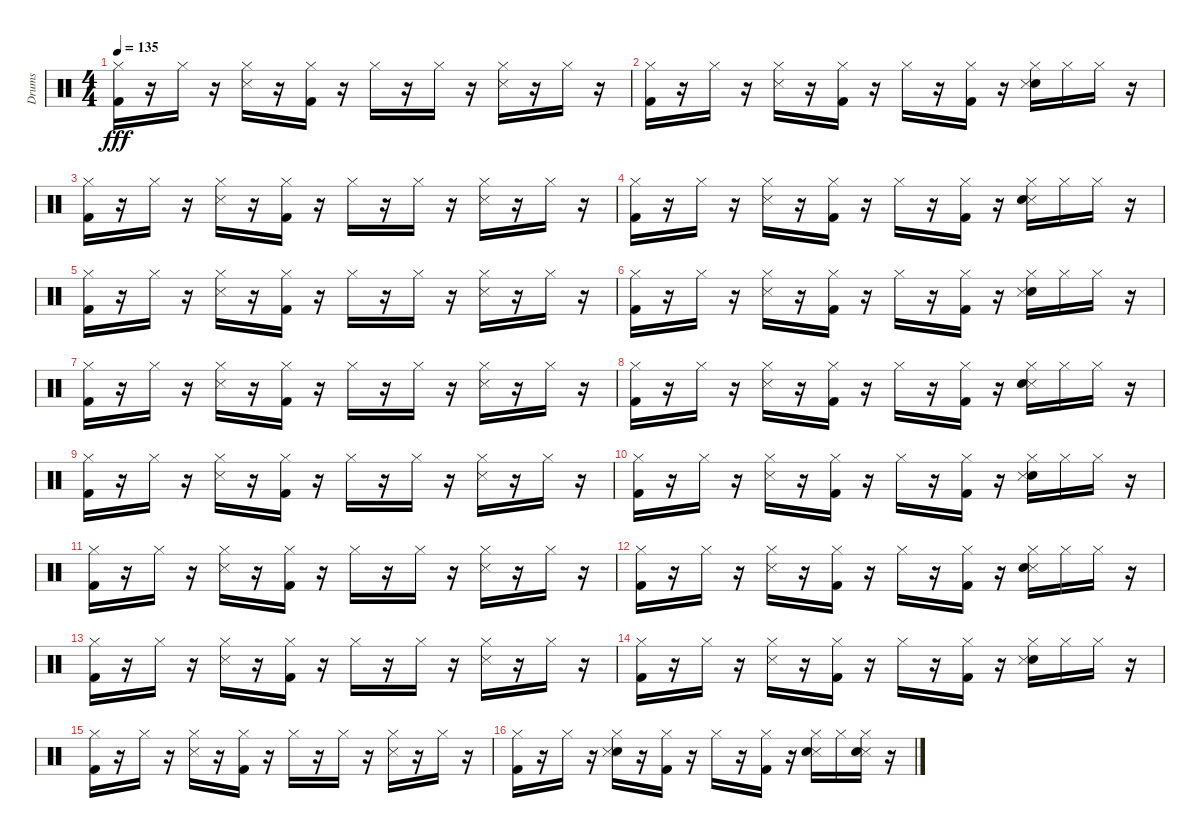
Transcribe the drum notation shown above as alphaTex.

\track ("Drums" "Drums") {instrument percussion}
\staff {score}
\articulation defaults
\ts (4 4)
\tempo 135
\clef neutral
\ks c
("Kick (hit) 2" "Hi-Hat (closed)").16{dy fff} r.16 "Hi-Hat (closed)".16 r.16 ("Snare (side stick) 3" "Hi-Hat (closed)").16 r.16 ("Kick (hit) 2" "Hi-Hat (closed)").16 r.16 "Hi-Hat (closed)".16 r.16 "Hi-Hat (closed)".16 r.16 ("Snare (side stick) 3" "Hi-Hat (closed)").16 r.16 "Hi-Hat (closed)".16 r.16 |
("Kick (hit) 2" "Hi-Hat (closed)").16 r.16 "Hi-Hat (closed)".16 r.16 ("Snare (side stick) 3" "Hi-Hat (closed)").16 r.16 ("Kick (hit) 2" "Hi-Hat (closed)").16 r.16 "Hi-Hat (closed)".16 r.16 ("Kick (hit) 2" "Hi-Hat (closed)").16 r.16 ("Electric Snare (hit)" "Snare (side stick) 3" "Hi-Hat (closed)").16 "Hi-Hat (closed)".16 "Hi-Hat (closed)".16 r.16 |
("Kick (hit) 2" "Hi-Hat (closed)").16 r.16 "Hi-Hat (closed)".16 r.16 ("Snare (side stick) 3" "Hi-Hat (closed)").16 r.16 ("Kick (hit) 2" "Hi-Hat (closed)").16 r.16 "Hi-Hat (closed)".16 r.16 "Hi-Hat (closed)".16 r.16 ("Snare (side stick) 3" "Hi-Hat (closed)").16 r.16 "Hi-Hat (closed)".16 r.16 |
("Kick (hit) 2" "Hi-Hat (closed)").16 r.16 "Hi-Hat (closed)".16 r.16 ("Snare (side stick) 3" "Hi-Hat (closed)").16 r.16 ("Kick (hit) 2" "Hi-Hat (closed)").16 r.16 "Hi-Hat (closed)".16 r.16 ("Kick (hit) 2" "Hi-Hat (closed)").16 r.16 ("Snare (side stick) 3" "Electric Snare (hit)" "Hi-Hat (closed)").16 "Hi-Hat (closed)".16 "Hi-Hat (closed)".16 r.16 |
("Kick (hit) 2" "Hi-Hat (closed)").16 r.16 "Hi-Hat (closed)".16 r.16 ("Snare (side stick) 3" "Hi-Hat (closed)").16 r.16 ("Kick (hit) 2" "Hi-Hat (closed)").16 r.16 "Hi-Hat (closed)".16 r.16 "Hi-Hat (closed)".16 r.16 ("Snare (side stick) 3" "Hi-Hat (closed)").16 r.16 "Hi-Hat (closed)".16 r.16 |
("Kick (hit) 2" "Hi-Hat (closed)").16 r.16 "Hi-Hat (closed)".16 r.16 ("Snare (side stick) 3" "Hi-Hat (closed)").16 r.16 ("Kick (hit) 2" "Hi-Hat (closed)").16 r.16 "Hi-Hat (closed)".16 r.16 ("Kick (hit) 2" "Hi-Hat (closed)").16 r.16 ("Electric Snare (hit)" "Snare (side stick) 3" "Hi-Hat (closed)").16 "Hi-Hat (closed)".16 "Hi-Hat (closed)".16 r.16 |
("Kick (hit) 2" "Hi-Hat (closed)").16 r.16 "Hi-Hat (closed)".16 r.16 ("Snare (side stick) 3" "Hi-Hat (closed)").16 r.16 ("Kick (hit) 2" "Hi-Hat (closed)").16 r.16 "Hi-Hat (closed)".16 r.16 "Hi-Hat (closed)".16 r.16 ("Snare (side stick) 3" "Hi-Hat (closed)").16 r.16 "Hi-Hat (closed)".16 r.16 |
("Kick (hit) 2" "Hi-Hat (closed)").16 r.16 "Hi-Hat (closed)".16 r.16 ("Snare (side stick) 3" "Hi-Hat (closed)").16 r.16 ("Kick (hit) 2" "Hi-Hat (closed)").16 r.16 "Hi-Hat (closed)".16 r.16 ("Kick (hit) 2" "Hi-Hat (closed)").16 r.16 ("Snare (side stick) 3" "Electric Snare (hit)" "Hi-Hat (closed)").16 "Hi-Hat (closed)".16 "Hi-Hat (closed)".16 r.16 |
("Kick (hit) 2" "Hi-Hat (closed)").16 r.16 "Hi-Hat (closed)".16 r.16 ("Snare (side stick) 3" "Hi-Hat (closed)").16 r.16 ("Kick (hit) 2" "Hi-Hat (closed)").16 r.16 "Hi-Hat (closed)".16 r.16 "Hi-Hat (closed)".16 r.16 ("Snare (side stick) 3" "Hi-Hat (closed)").16 r.16 "Hi-Hat (closed)".16 r.16 |
("Kick (hit) 2" "Hi-Hat (closed)").16 r.16 "Hi-Hat (closed)".16 r.16 ("Snare (side stick) 3" "Hi-Hat (closed)").16 r.16 ("Kick (hit) 2" "Hi-Hat (closed)").16 r.16 "Hi-Hat (closed)".16 r.16 ("Kick (hit) 2" "Hi-Hat (closed)").16 r.16 ("Electric Snare (hit)" "Snare (side stick) 3" "Hi-Hat (closed)").16 "Hi-Hat (closed)".16 "Hi-Hat (closed)".16 r.16 |
("Kick (hit) 2" "Hi-Hat (closed)").16 r.16 "Hi-Hat (closed)".16 r.16 ("Snare (side stick) 3" "Hi-Hat (closed)").16 r.16 ("Kick (hit) 2" "Hi-Hat (closed)").16 r.16 "Hi-Hat (closed)".16 r.16 "Hi-Hat (closed)".16 r.16 ("Snare (side stick) 3" "Hi-Hat (closed)").16 r.16 "Hi-Hat (closed)".16 r.16 |
("Kick (hit) 2" "Hi-Hat (closed)").16 r.16 "Hi-Hat (closed)".16 r.16 ("Snare (side stick) 3" "Hi-Hat (closed)").16 r.16 ("Kick (hit) 2" "Hi-Hat (closed)").16 r.16 "Hi-Hat (closed)".16 r.16 ("Kick (hit) 2" "Hi-Hat (closed)").16 r.16 ("Snare (side stick) 3" "Electric Snare (hit)" "Hi-Hat (closed)").16 "Hi-Hat (closed)".16 "Hi-Hat (closed)".16 r.16 |
("Kick (hit) 2" "Hi-Hat (closed)").16 r.16 "Hi-Hat (closed)".16 r.16 ("Snare (side stick) 3" "Hi-Hat (closed)").16 r.16 ("Kick (hit) 2" "Hi-Hat (closed)").16 r.16 "Hi-Hat (closed)".16 r.16 "Hi-Hat (closed)".16 r.16 ("Snare (side stick) 3" "Hi-Hat (closed)").16 r.16 "Hi-Hat (closed)".16 r.16 |
("Kick (hit) 2" "Hi-Hat (closed)").16 r.16 "Hi-Hat (closed)".16 r.16 ("Snare (side stick) 3" "Hi-Hat (closed)").16 r.16 ("Kick (hit) 2" "Hi-Hat (closed)").16 r.16 "Hi-Hat (closed)".16 r.16 ("Kick (hit) 2" "Hi-Hat (closed)").16 r.16 ("Electric Snare (hit)" "Snare (side stick) 3" "Hi-Hat (closed)").16 "Hi-Hat (closed)".16 "Hi-Hat (closed)".16 r.16 |
("Kick (hit) 2" "Hi-Hat (closed)").16 r.16 "Hi-Hat (closed)".16 r.16 ("Snare (side stick) 3" "Hi-Hat (closed)").16 r.16 ("Kick (hit) 2" "Hi-Hat (closed)").16 r.16 "Hi-Hat (closed)".16 r.16 "Hi-Hat (closed)".16 r.16 ("Snare (side stick) 3" "Hi-Hat (closed)").16 r.16 "Hi-Hat (closed)".16 r.16 |
("Kick (hit) 2" "Hi-Hat (closed)").16 r.16 "Hi-Hat (closed)".16 r.16 ("Electric Snare (hit)" "Snare (side stick) 3" "Hi-Hat (closed)").16 r.16 ("Kick (hit) 2" "Hi-Hat (closed)").16 r.16 "Hi-Hat (closed)".16 r.16 ("Kick (hit) 2" "Hi-Hat (closed)").16 r.16 ("Snare (side stick) 3" "Electric Snare (hit)" "Hi-Hat (closed)").16 "Hi-Hat (closed)".16 ("Snare (side stick) 3" "Electric Snare (hit)" "Hi-Hat (closed)").16 r.16
